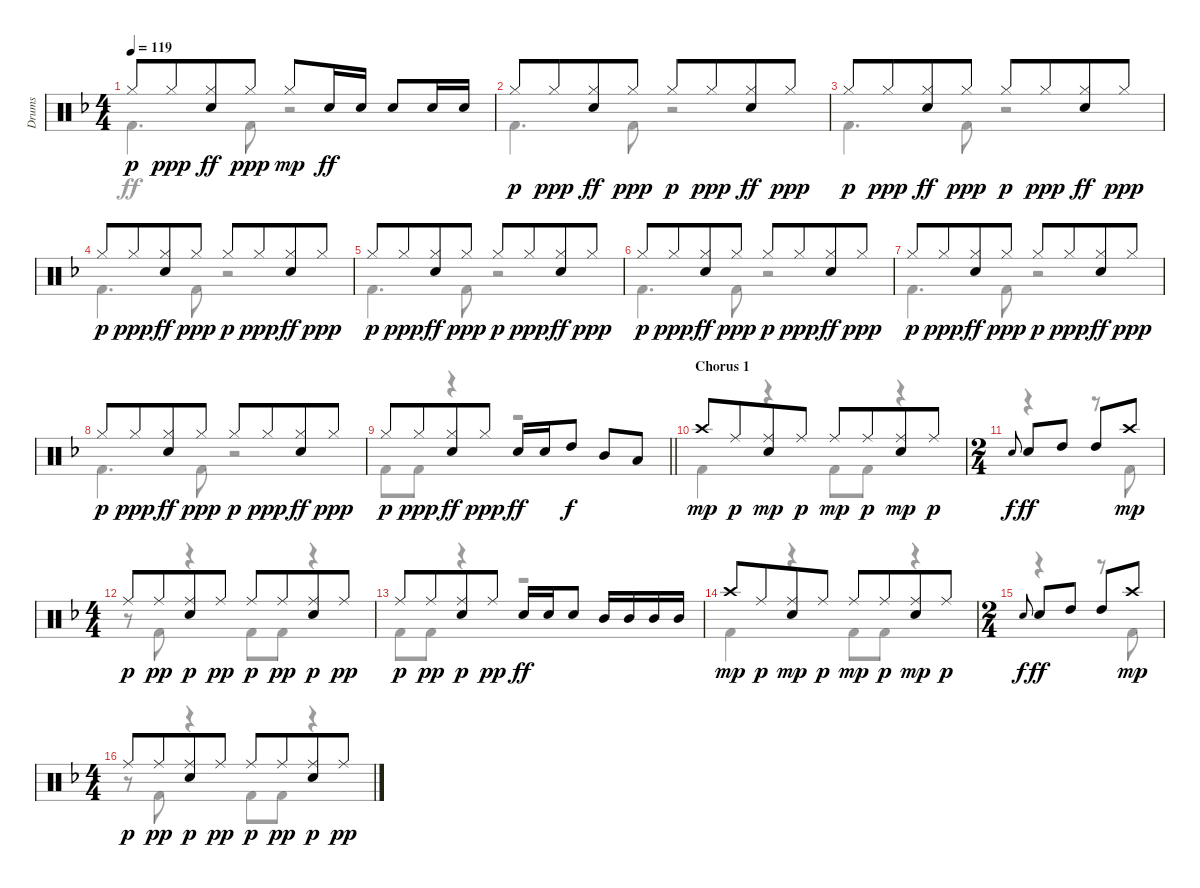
\track ("Drums" "Drums") {instrument percussion}
\staff {score}
\articulation defaults
\voice
\ts (4 4)
\tempo 119
\clef neutral
\ks f "Hi-Hat (closed)".8{dy p} "Hi-Hat (closed)".8{dy ppp beam merge}
("Hi-Hat (closed)" "Electric Snare (hit)").8{dy ff} "Hi-Hat (closed)".8{dy ppp} "Hi-Hat (closed)".8{dy mp} "Electric Snare (hit)".16{dy ff} "Electric Snare (hit)".16 "Electric Snare (hit)".8 "Electric Snare (hit)".16 "Electric Snare (hit)".16 |
"Hi-Hat (closed)".8{dy p} "Hi-Hat (closed)".8{dy ppp beam merge} ("Hi-Hat (closed)" "Electric Snare (hit)").8{dy ff} "Hi-Hat (closed)".8{dy ppp} "Hi-Hat (closed)".8{dy p} "Hi-Hat (closed)".8{dy ppp beam merge} ("Hi-Hat (closed)" "Electric Snare (hit)").8{dy ff} "Hi-Hat (closed)".8{dy ppp} |
"Hi-Hat (closed)".8{dy p} "Hi-Hat (closed)".8{dy ppp beam merge} ("Hi-Hat (closed)" "Electric Snare (hit)").8{dy ff} "Hi-Hat (closed)".8{dy ppp} "Hi-Hat (closed)".8{dy p} "Hi-Hat (closed)".8{dy ppp beam merge} ("Hi-Hat (closed)" "Electric Snare (hit)").8{dy ff} "Hi-Hat (closed)".8{dy ppp} |
"Hi-Hat (closed)".8{dy p} "Hi-Hat (closed)".8{dy ppp beam merge} ("Hi-Hat (closed)" "Electric Snare (hit)").8{dy ff} "Hi-Hat (closed)".8{dy ppp} "Hi-Hat (closed)".8{dy p} "Hi-Hat (closed)".8{dy ppp beam merge} ("Hi-Hat (closed)" "Electric Snare (hit)").8{dy ff} "Hi-Hat (closed)".8{dy ppp} |
"Hi-Hat (closed)".8{dy p} "Hi-Hat (closed)".8{dy ppp beam merge} ("Hi-Hat (closed)" "Electric Snare (hit)").8{dy ff} "Hi-Hat (closed)".8{dy ppp} "Hi-Hat (closed)".8{dy p} "Hi-Hat (closed)".8{dy ppp beam merge} ("Hi-Hat (closed)" "Electric Snare (hit)").8{dy ff} "Hi-Hat (closed)".8{dy ppp} |
"Hi-Hat (closed)".8{dy p} "Hi-Hat (closed)".8{dy ppp beam merge} ("Hi-Hat (closed)" "Electric Snare (hit)").8{dy ff} "Hi-Hat (closed)".8{dy ppp} "Hi-Hat (closed)".8{dy p} "Hi-Hat (closed)".8{dy ppp beam merge} ("Hi-Hat (closed)" "Electric Snare (hit)").8{dy ff} "Hi-Hat (closed)".8{dy ppp} |
"Hi-Hat (closed)".8{dy p} "Hi-Hat (closed)".8{dy ppp beam merge} ("Hi-Hat (closed)" "Electric Snare (hit)").8{dy ff} "Hi-Hat (closed)".8{dy ppp} "Hi-Hat (closed)".8{dy p} "Hi-Hat (closed)".8{dy ppp beam merge} ("Hi-Hat (closed)" "Electric Snare (hit)").8{dy ff} "Hi-Hat (closed)".8{dy ppp} |
"Hi-Hat (closed)".8{dy p} "Hi-Hat (closed)".8{dy ppp beam merge} ("Hi-Hat (closed)" "Electric Snare (hit)").8{dy ff} "Hi-Hat (closed)".8{dy ppp} "Hi-Hat (closed)".8{dy p} "Hi-Hat (closed)".8{dy ppp beam merge} ("Hi-Hat (closed)" "Electric Snare (hit)").8{dy ff} "Hi-Hat (closed)".8{dy ppp} |
\barLineRight lightlight "Hi-Hat (closed)".8{dy p} "Hi-Hat (closed)".8{dy ppp beam merge}
("Hi-Hat (closed)" "Electric Snare (hit)").8{dy ff} "Hi-Hat (closed)".8{dy ppp} "Electric Snare (hit)".16{dy ff} "Electric Snare (hit)".16 "High Tom (hit)".8{dy f} "Mid Tom (hit)".8 "Low Tom (hit)".8 |
\section ("" "Chorus 1")
"Crash high (hit)".8{dy mp} "Ride (middle)".8{dy p beam merge} ("Ride (middle)" "Electric Snare (hit)").8{dy mp} "Ride (middle)".8{dy p} "Ride (middle)".8{dy mp} "Ride (middle)".8{dy p beam merge} ("Ride (middle)" "Electric Snare (hit)").8{dy mp} "Ride (middle)".8{dy p} |
\ts (2 4)
"Electric Snare (hit)".8{gr onbeat dy f} "Electric Snare (hit)".8{dy ff} "High Tom (hit)".8 "High Tom (hit)".8 "Crash high (hit)".8{dy mp} |
\ts (4 4)
"Ride (middle)".8{dy p} "Ride (middle)".8{dy pp beam merge} ("Ride (middle)" "Electric Snare (hit)").8{dy p} "Ride (middle)".8{dy pp} "Ride (middle)".8{dy p} "Ride (middle)".8{dy pp beam merge} ("Ride (middle)" "Electric Snare (hit)").8{dy p} "Ride (middle)".8{dy pp} |
"Ride (middle)".8{dy p} "Ride (middle)".8{dy pp beam merge} ("Ride (middle)" "Electric Snare (hit)").8{dy p} "Ride (middle)".8{dy pp} "Electric Snare (hit)".16{dy ff} "Electric Snare (hit)".16 "Electric Snare (hit)".8 "Mid Tom (hit)".16 "Mid Tom (hit)".16 "Mid Tom (hit)".16 "Mid Tom (hit)".16 |
"Crash high (hit)".8{dy mp} "Ride (middle)".8{dy p beam merge} ("Ride (middle)" "Electric Snare (hit)").8{dy mp} "Ride (middle)".8{dy p} "Ride (middle)".8{dy mp} "Ride (middle)".8{dy p beam merge} ("Ride (middle)" "Electric Snare (hit)").8{dy mp} "Ride (middle)".8{dy p} |
\ts (2 4)
"Electric Snare (hit)".8{gr onbeat dy f} "Electric Snare (hit)".8{dy ff} "High Tom (hit)".8{beam split} "High Tom (hit)".8 "Crash high (hit)".8{dy mp} |
\ts (4 4)
"Ride (middle)".8{dy p} "Ride (middle)".8{dy pp beam merge} ("Ride (middle)" "Electric Snare (hit)").8{dy p} "Ride (middle)".8{dy pp} "Ride (middle)".8{dy p} "Ride (middle)".8{dy pp beam merge} ("Ride (middle)" "Electric Snare (hit)").8{dy p} "Ride (middle)".8{dy pp}
\voice
\clef neutral
\ottava regular
\simile none
\ks f "Kick (hit) 2".4{d dy ff} "Kick (hit) 2".8
r.2 |
"Kick (hit) 2".4{d} "Kick (hit) 2".8 r.2 |
"Kick (hit) 2".4{d} "Kick (hit) 2".8 r.2 |
"Kick (hit) 2".4{d} "Kick (hit) 2".8 r.2 |
"Kick (hit) 2".4{d} "Kick (hit) 2".8 r.2 |
"Kick (hit) 2".4{d} "Kick (hit) 2".8 r.2 |
"Kick (hit) 2".4{d} "Kick (hit) 2".8 r.2 |
"Kick (hit) 2".4{d} "Kick (hit) 2".8 r.2 |
\barLineRight lightlight "Kick (hit) 2".8 "Kick (hit) 2".8
r.4 r.2 |
"Kick (hit) 2".4 r.4 "Kick (hit) 2".8 "Kick (hit) 2".8 r.4 |
r.4 r.8 "Kick (hit) 2".8 |
r.8 "Kick (hit) 2".8 r.4 "Kick (hit) 2".8 "Kick (hit) 2".8 r.4 |
"Kick (hit) 2".8 "Kick (hit) 2".8 r.4 r.2 |
"Kick (hit) 2".4 r.4 "Kick (hit) 2".8 "Kick (hit) 2".8 r.4 |
r.4 r.8 "Kick (hit) 2".8 |
r.8 "Kick (hit) 2".8 r.4 "Kick (hit) 2".8 "Kick (hit) 2".8 r.4
